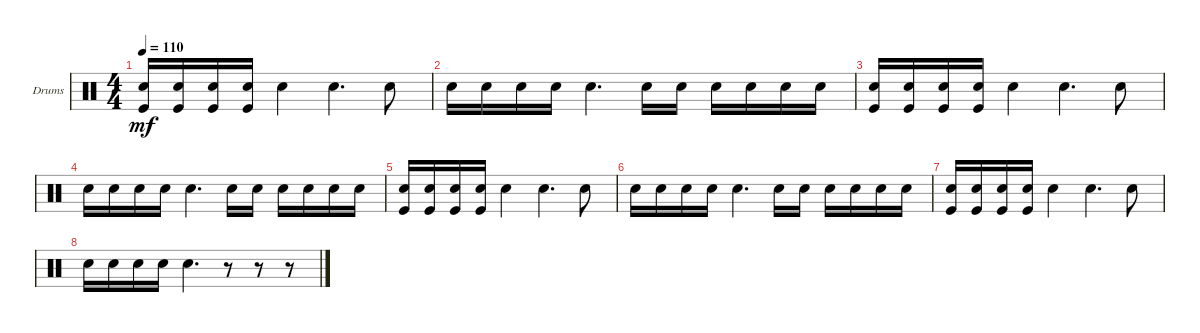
\defaultSystemsLayout 4
\bracketExtendMode groupsimilarinstruments
\firstSystemTrackNameOrientation horizontal
\otherSystemsTrackNameOrientation horizontal
\track ("Drumkit" "Drums") {instrument percussion}
\staff {score}
\articulation defaults
\ts (4 4)
\tempo 110
\clef neutral
\ks c
("Snare (hit) 2" "Kick (hit)").16{dy mf} ("Snare (hit) 2" "Kick (hit)").16 ("Snare (hit) 2" "Kick (hit)").16 ("Snare (hit) 2" "Kick (hit)").16 "Snare (hit) 2".4 "Snare (hit) 2".4{d} "Snare (hit) 2".8 |
"Snare (hit) 2".16 "Snare (hit) 2".16 "Snare (hit) 2".16 "Snare (hit) 2".16 "Snare (hit) 2".4{d} "Snare (hit) 2".16 "Snare (hit) 2".16 "Snare (hit) 2".16 "Snare (hit) 2".16 "Snare (hit) 2".16 "Snare (hit) 2".16 |
("Snare (hit) 2" "Kick (hit)").16 ("Snare (hit) 2" "Kick (hit)").16 ("Snare (hit) 2" "Kick (hit)").16 ("Snare (hit) 2" "Kick (hit)").16 "Snare (hit) 2".4 "Snare (hit) 2".4{d} "Snare (hit) 2".8 |
"Snare (hit) 2".16 "Snare (hit) 2".16 "Snare (hit) 2".16 "Snare (hit) 2".16 "Snare (hit) 2".4{d} "Snare (hit) 2".16 "Snare (hit) 2".16 "Snare (hit) 2".16 "Snare (hit) 2".16 "Snare (hit) 2".16 "Snare (hit) 2".16 |
("Snare (hit) 2" "Kick (hit)").16 ("Snare (hit) 2" "Kick (hit)").16 ("Snare (hit) 2" "Kick (hit)").16 ("Snare (hit) 2" "Kick (hit)").16 "Snare (hit) 2".4 "Snare (hit) 2".4{d} "Snare (hit) 2".8 |
"Snare (hit) 2".16 "Snare (hit) 2".16 "Snare (hit) 2".16 "Snare (hit) 2".16 "Snare (hit) 2".4{d} "Snare (hit) 2".16 "Snare (hit) 2".16 "Snare (hit) 2".16 "Snare (hit) 2".16 "Snare (hit) 2".16 "Snare (hit) 2".16 |
("Snare (hit) 2" "Kick (hit)").16 ("Snare (hit) 2" "Kick (hit)").16 ("Snare (hit) 2" "Kick (hit)").16 ("Snare (hit) 2" "Kick (hit)").16 "Snare (hit) 2".4 "Snare (hit) 2".4{d} "Snare (hit) 2".8 |
"Snare (hit) 2".16 "Snare (hit) 2".16 "Snare (hit) 2".16 "Snare (hit) 2".16 "Snare (hit) 2".4{d} r.8 r.8 r.8
